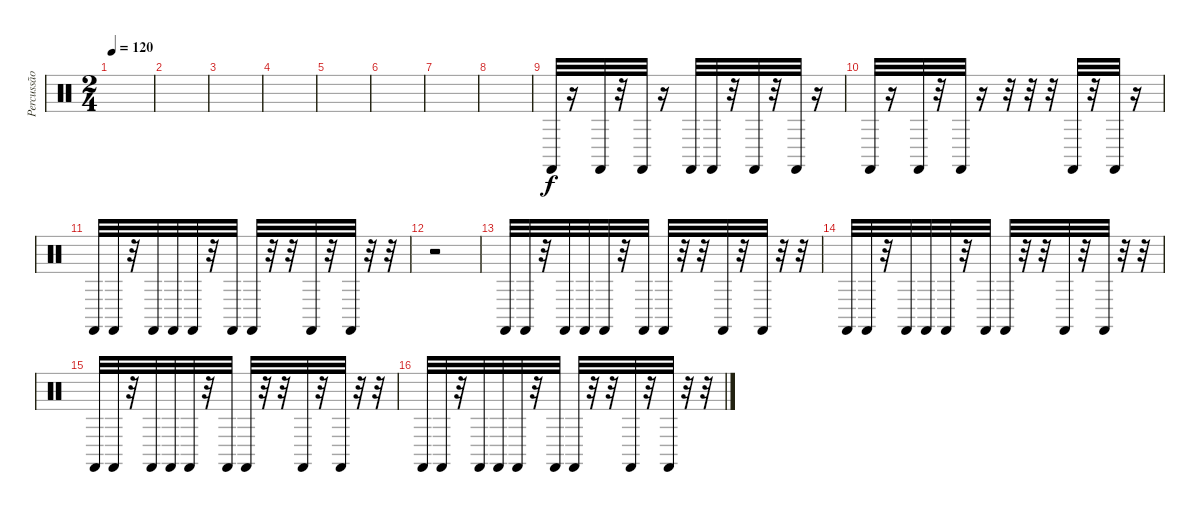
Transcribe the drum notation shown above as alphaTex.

\track ("Percussão" "Percussão") {instrument percussion}
\staff {score}
\articulation defaults
\ts (2 4)
\tempo 120
\clef neutral
\ks c
|
|
|
|
|
|
|
|
"Castanets (hit)".32 r.16 "Castanets (hit)".32 r.32 "Castanets (hit)".32 r.16 "Castanets (hit)".32 "Castanets (hit)".32 r.32 "Castanets (hit)".32 r.32 "Castanets (hit)".32 r.16 |
"Castanets (hit)".32 r.16 "Castanets (hit)".32 r.32 "Castanets (hit)".32 r.16 r.32 r.32 r.32 "Castanets (hit)".32 r.32 "Castanets (hit)".32 r.16 |
"Castanets (hit)".32 "Castanets (hit)".32 r.32 "Castanets (hit)".32 "Castanets (hit)".32 "Castanets (hit)".32 r.32 "Castanets (hit)".32 "Castanets (hit)".32 r.32 r.32 "Castanets (hit)".32 r.32 "Castanets (hit)".32 r.32 r.32 |
r.2 |
"Castanets (hit)".32 "Castanets (hit)".32 r.32 "Castanets (hit)".32 "Castanets (hit)".32 "Castanets (hit)".32 r.32 "Castanets (hit)".32 "Castanets (hit)".32 r.32 r.32 "Castanets (hit)".32 r.32 "Castanets (hit)".32 r.32 r.32 |
"Castanets (hit)".32 "Castanets (hit)".32 r.32 "Castanets (hit)".32 "Castanets (hit)".32 "Castanets (hit)".32 r.32 "Castanets (hit)".32 "Castanets (hit)".32 r.32 r.32 "Castanets (hit)".32 r.32 "Castanets (hit)".32 r.32 r.32 |
"Castanets (hit)".32 "Castanets (hit)".32 r.32 "Castanets (hit)".32 "Castanets (hit)".32 "Castanets (hit)".32 r.32 "Castanets (hit)".32 "Castanets (hit)".32 r.32 r.32 "Castanets (hit)".32 r.32 "Castanets (hit)".32 r.32 r.32 |
"Castanets (hit)".32 "Castanets (hit)".32 r.32 "Castanets (hit)".32 "Castanets (hit)".32 "Castanets (hit)".32 r.32 "Castanets (hit)".32 "Castanets (hit)".32 r.32 r.32 "Castanets (hit)".32 r.32 "Castanets (hit)".32 r.32 r.32
